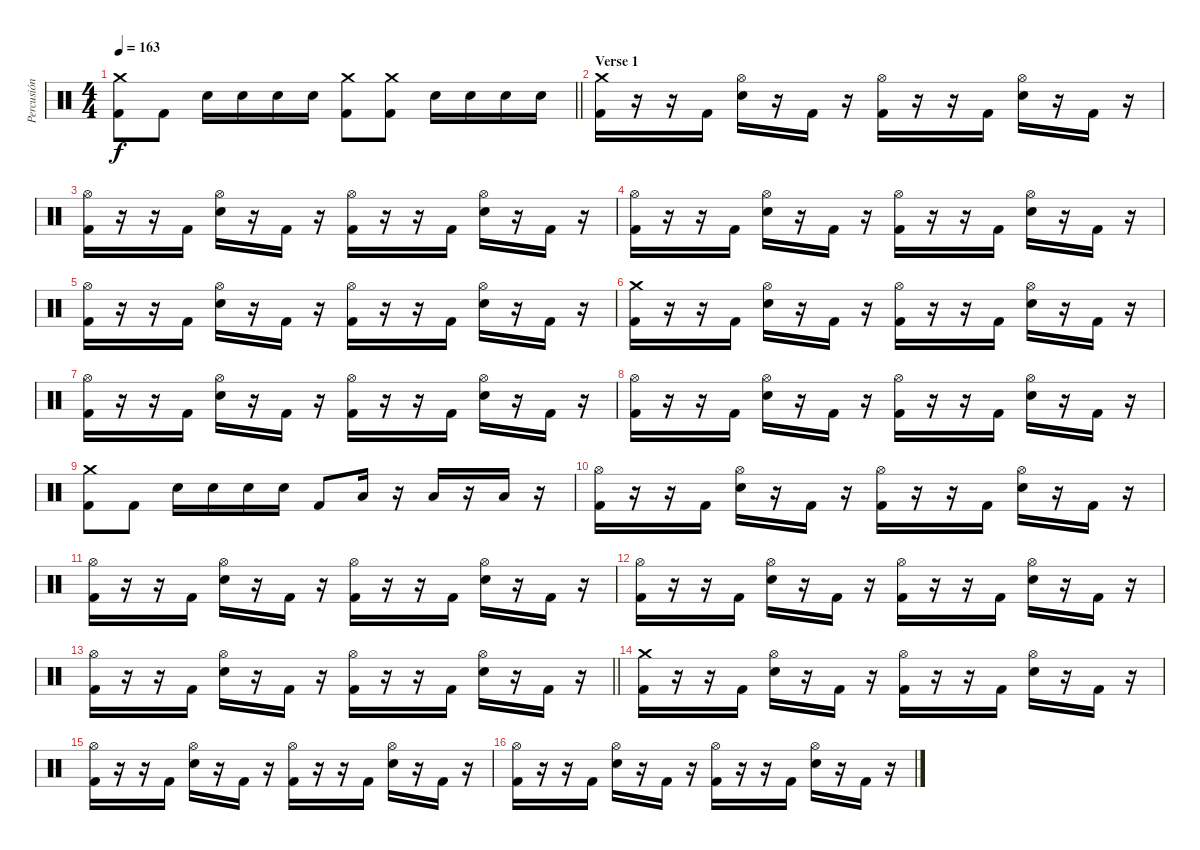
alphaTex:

\track ("Percusión" "Percusión") {instrument percussion}
\staff {score}
\articulation defaults
\ts (4 4)
\tempo 163
\clef neutral
\barLineRight lightlight
\ks c
("Crash medium (hit)" "Kick (hit) 2").8{dy f} "Kick (hit) 2".8 "Snare (hit) 2".16 "Snare (hit) 2".16 "Snare (hit) 2".16 "Snare (hit) 2".16 ("Crash medium (hit)" "Kick (hit) 2").8 ("Crash medium (hit)" "Kick (hit) 2").8 "Snare (hit) 2".16 "Snare (hit) 2".16 "Snare (hit) 2".16 "Snare (hit) 2".16 |
\section ("" "Verse 1")
("Crash medium (hit)" "Kick (hit) 2").16 r.16 r.16 "Kick (hit) 2".16 ("Hi-Hat (open)" "Snare (hit) 2").16 r.16 "Kick (hit) 2".16 r.16 ("Hi-Hat (open)" "Kick (hit) 2").16 r.16 r.16 "Kick (hit) 2".16 ("Hi-Hat (open)" "Snare (hit) 2").16 r.16 "Kick (hit) 2".16 r.16 |
("Hi-Hat (open)" "Kick (hit) 2").16 r.16 r.16 "Kick (hit) 2".16 ("Hi-Hat (open)" "Snare (hit) 2").16 r.16 "Kick (hit) 2".16 r.16 ("Hi-Hat (open)" "Kick (hit) 2").16 r.16 r.16 "Kick (hit) 2".16 ("Hi-Hat (open)" "Snare (hit) 2").16 r.16 "Kick (hit) 2".16 r.16 |
("Hi-Hat (open)" "Kick (hit) 2").16 r.16 r.16 "Kick (hit) 2".16 ("Hi-Hat (open)" "Snare (hit) 2").16 r.16 "Kick (hit) 2".16 r.16 ("Hi-Hat (open)" "Kick (hit) 2").16 r.16 r.16 "Kick (hit) 2".16 ("Hi-Hat (open)" "Snare (hit) 2").16 r.16 "Kick (hit) 2".16 r.16 |
("Hi-Hat (open)" "Kick (hit) 2").16 r.16 r.16 "Kick (hit) 2".16 ("Hi-Hat (open)" "Snare (hit) 2").16 r.16 "Kick (hit) 2".16 r.16 ("Hi-Hat (open)" "Kick (hit) 2").16 r.16 r.16 "Kick (hit) 2".16 ("Hi-Hat (open)" "Snare (hit) 2").16 r.16 "Kick (hit) 2".16 r.16 |
("Crash medium (hit)" "Kick (hit) 2").16 r.16 r.16 "Kick (hit) 2".16 ("Hi-Hat (open)" "Snare (hit) 2").16 r.16 "Kick (hit) 2".16 r.16 ("Hi-Hat (open)" "Kick (hit) 2").16 r.16 r.16 "Kick (hit) 2".16 ("Hi-Hat (open)" "Snare (hit) 2").16 r.16 "Kick (hit) 2".16 r.16 |
("Hi-Hat (open)" "Kick (hit) 2").16 r.16 r.16 "Kick (hit) 2".16 ("Hi-Hat (open)" "Snare (hit) 2").16 r.16 "Kick (hit) 2".16 r.16 ("Hi-Hat (open)" "Kick (hit) 2").16 r.16 r.16 "Kick (hit) 2".16 ("Hi-Hat (open)" "Snare (hit) 2").16 r.16 "Kick (hit) 2".16 r.16 |
("Hi-Hat (open)" "Kick (hit) 2").16 r.16 r.16 "Kick (hit) 2".16 ("Hi-Hat (open)" "Snare (hit) 2").16 r.16 "Kick (hit) 2".16 r.16 ("Hi-Hat (open)" "Kick (hit) 2").16 r.16 r.16 "Kick (hit) 2".16 ("Hi-Hat (open)" "Snare (hit) 2").16 r.16 "Kick (hit) 2".16 r.16 |
("Crash medium (hit)" "Kick (hit) 2").8 "Kick (hit) 2".8 "Snare (hit) 2".16 "Snare (hit) 2".16 "Snare (hit) 2".16 "Snare (hit) 2".16 "Kick (hit) 2".8 "Low Tom (hit)".16 r.16 "Low Tom (hit)".16 r.16 "Low Tom (hit)".16 r.16 |
("Hi-Hat (open)" "Kick (hit) 2").16 r.16 r.16 "Kick (hit) 2".16 ("Hi-Hat (open)" "Snare (hit) 2").16 r.16 "Kick (hit) 2".16 r.16 ("Hi-Hat (open)" "Kick (hit) 2").16 r.16 r.16 "Kick (hit) 2".16 ("Hi-Hat (open)" "Snare (hit) 2").16 r.16 "Kick (hit) 2".16 r.16 |
("Hi-Hat (open)" "Kick (hit) 2").16 r.16 r.16 "Kick (hit) 2".16 ("Hi-Hat (open)" "Snare (hit) 2").16 r.16 "Kick (hit) 2".16 r.16 ("Hi-Hat (open)" "Kick (hit) 2").16 r.16 r.16 "Kick (hit) 2".16 ("Hi-Hat (open)" "Snare (hit) 2").16 r.16 "Kick (hit) 2".16 r.16 |
("Hi-Hat (open)" "Kick (hit) 2").16 r.16 r.16 "Kick (hit) 2".16 ("Hi-Hat (open)" "Snare (hit) 2").16 r.16 "Kick (hit) 2".16 r.16 ("Hi-Hat (open)" "Kick (hit) 2").16 r.16 r.16 "Kick (hit) 2".16 ("Hi-Hat (open)" "Snare (hit) 2").16 r.16 "Kick (hit) 2".16 r.16 |
\barLineRight lightlight
("Hi-Hat (open)" "Kick (hit) 2").16 r.16 r.16 "Kick (hit) 2".16 ("Hi-Hat (open)" "Snare (hit) 2").16 r.16 "Kick (hit) 2".16 r.16 ("Hi-Hat (open)" "Kick (hit) 2").16 r.16 r.16 "Kick (hit) 2".16 ("Hi-Hat (open)" "Snare (hit) 2").16 r.16 "Kick (hit) 2".16 r.16 |
("Crash medium (hit)" "Kick (hit) 2").16 r.16 r.16 "Kick (hit) 2".16 ("Hi-Hat (open)" "Snare (hit) 2").16 r.16 "Kick (hit) 2".16 r.16 ("Hi-Hat (open)" "Kick (hit) 2").16 r.16 r.16 "Kick (hit) 2".16 ("Hi-Hat (open)" "Snare (hit) 2").16 r.16 "Kick (hit) 2".16 r.16 |
("Hi-Hat (open)" "Kick (hit) 2").16 r.16 r.16 "Kick (hit) 2".16 ("Hi-Hat (open)" "Snare (hit) 2").16 r.16 "Kick (hit) 2".16 r.16 ("Hi-Hat (open)" "Kick (hit) 2").16 r.16 r.16 "Kick (hit) 2".16 ("Hi-Hat (open)" "Snare (hit) 2").16 r.16 "Kick (hit) 2".16 r.16 |
("Hi-Hat (open)" "Kick (hit) 2").16 r.16 r.16 "Kick (hit) 2".16 ("Hi-Hat (open)" "Snare (hit) 2").16 r.16 "Kick (hit) 2".16 r.16 ("Hi-Hat (open)" "Kick (hit) 2").16 r.16 r.16 "Kick (hit) 2".16 ("Hi-Hat (open)" "Snare (hit) 2").16 r.16 "Kick (hit) 2".16 r.16
